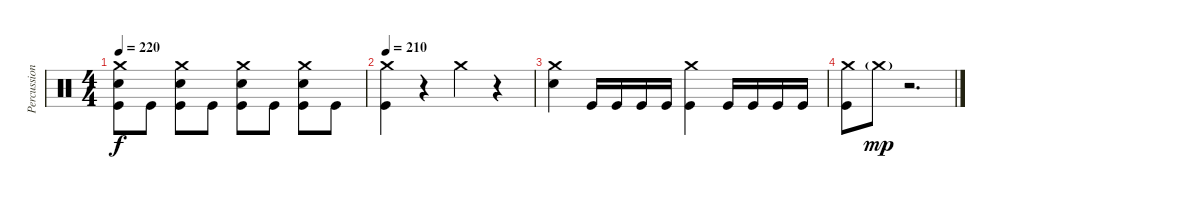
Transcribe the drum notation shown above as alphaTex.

\track ("Percussion" "Percussion") {instrument percussion}
\staff {score}
\articulation defaults
\ts (4 4)
\tempo 220
\clef neutral
\ks c
("Crash medium (hit)" "Snare (hit) 2" "Kick (hit)").8{dy f} "Kick (hit)".8 ("Crash medium (hit)" "Snare (hit) 2" "Kick (hit)").8 "Kick (hit)".8 ("Crash medium (hit)" "Snare (hit) 2" "Kick (hit)").8 "Kick (hit)".8 ("Crash medium (hit)" "Snare (hit) 2" "Kick (hit)").8 "Kick (hit)".8 |
\tempo 210
("Crash medium (hit)" "Kick (hit)").4 r.4 "Crash medium (hit)".4 r.4 |
("Crash medium (hit)" "Snare (hit) 2").4 "Kick (hit)".16 "Kick (hit)".16 "Kick (hit)".16 "Kick (hit)".16 ("Crash medium (hit)" "Kick (hit)").4 "Kick (hit)".16 "Kick (hit)".16 "Kick (hit)".16 "Kick (hit)".16 |
("Crash medium (hit)" "Kick (hit)").8 "Crash medium (hit)"{g}.8{dy mp} r.2{d}
